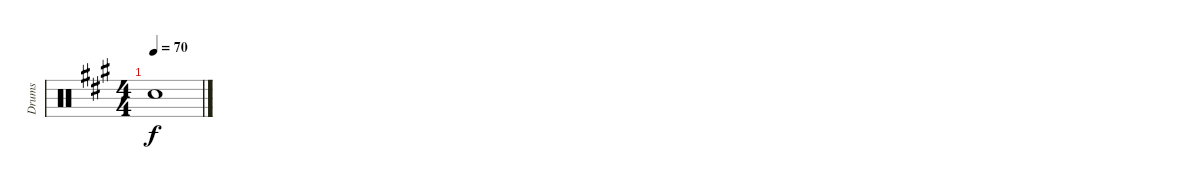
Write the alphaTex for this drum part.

\track ("Drums" "Drums") {instrument percussion}
\staff {score}
\articulation defaults
\ts (4 4)
\tempo 70
\clef neutral
\ks a "Snare (hit)"{t}.1{dy f}
